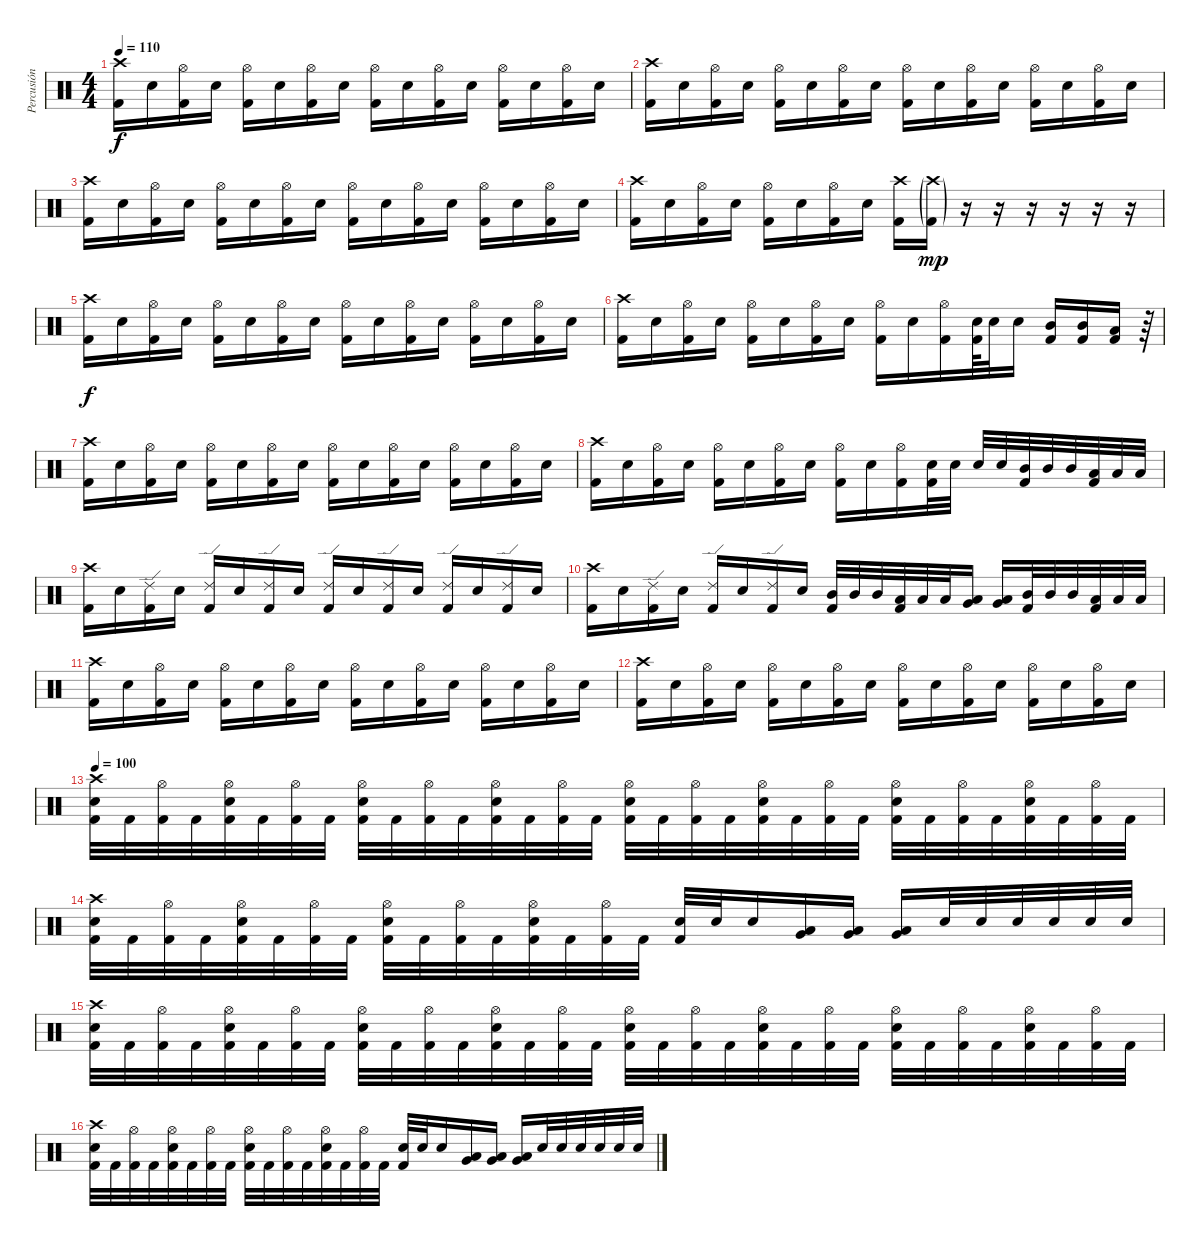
\track ("Percusión" "Percusión") {instrument percussion}
\staff {score}
\articulation defaults
\ts (4 4)
\tempo 110
\clef neutral
\ks c
("Crash high (hit)" "Kick (hit) 2").16{dy f} "Electric Snare (hit)".16 ("Hi-Hat (open)" "Kick (hit) 2").16 "Electric Snare (hit)".16 ("Hi-Hat (open)" "Kick (hit) 2").16 "Electric Snare (hit)".16 ("Hi-Hat (open)" "Kick (hit) 2").16 "Electric Snare (hit)".16 ("Hi-Hat (open)" "Kick (hit) 2").16 "Electric Snare (hit)".16 ("Hi-Hat (open)" "Kick (hit) 2").16 "Electric Snare (hit)".16 ("Hi-Hat (open)" "Kick (hit) 2").16 "Electric Snare (hit)".16 ("Hi-Hat (open)" "Kick (hit) 2").16 "Electric Snare (hit)".16 |
("Crash high (hit)" "Kick (hit) 2").16 "Electric Snare (hit)".16 ("Hi-Hat (open)" "Kick (hit) 2").16 "Electric Snare (hit)".16 ("Hi-Hat (open)" "Kick (hit) 2").16 "Electric Snare (hit)".16 ("Hi-Hat (open)" "Kick (hit) 2").16 "Electric Snare (hit)".16 ("Hi-Hat (open)" "Kick (hit) 2").16 "Electric Snare (hit)".16 ("Hi-Hat (open)" "Kick (hit) 2").16 "Electric Snare (hit)".16 ("Hi-Hat (open)" "Kick (hit) 2").16 "Electric Snare (hit)".16 ("Hi-Hat (open)" "Kick (hit) 2").16 "Electric Snare (hit)".16 |
("Crash high (hit)" "Kick (hit) 2").16 "Electric Snare (hit)".16 ("Hi-Hat (open)" "Kick (hit) 2").16 "Electric Snare (hit)".16 ("Hi-Hat (open)" "Kick (hit) 2").16 "Electric Snare (hit)".16 ("Hi-Hat (open)" "Kick (hit) 2").16 "Electric Snare (hit)".16 ("Hi-Hat (open)" "Kick (hit) 2").16 "Electric Snare (hit)".16 ("Hi-Hat (open)" "Kick (hit) 2").16 "Electric Snare (hit)".16 ("Hi-Hat (open)" "Kick (hit) 2").16 "Electric Snare (hit)".16 ("Hi-Hat (open)" "Kick (hit) 2").16 "Electric Snare (hit)".16 |
("Crash high (hit)" "Kick (hit) 2").16 "Electric Snare (hit)".16 ("Hi-Hat (open)" "Kick (hit) 2").16 "Electric Snare (hit)".16 ("Hi-Hat (open)" "Kick (hit) 2").16 "Electric Snare (hit)".16 ("Hi-Hat (open)" "Kick (hit) 2").16 "Electric Snare (hit)".16 ("Crash high (hit)" "Kick (hit) 2").16 ("Crash high (hit)"{g} "Kick (hit) 2"{g}).16{dy mp} r.16 r.16 r.16 r.16 r.16 r.16 |
("Crash high (hit)" "Kick (hit) 2").16{dy f} "Electric Snare (hit)".16 ("Hi-Hat (open)" "Kick (hit) 2").16 "Electric Snare (hit)".16 ("Hi-Hat (open)" "Kick (hit) 2").16 "Electric Snare (hit)".16 ("Hi-Hat (open)" "Kick (hit) 2").16 "Electric Snare (hit)".16 ("Hi-Hat (open)" "Kick (hit) 2").16 "Electric Snare (hit)".16 ("Hi-Hat (open)" "Kick (hit) 2").16 "Electric Snare (hit)".16 ("Hi-Hat (open)" "Kick (hit) 2").16 "Electric Snare (hit)".16 ("Hi-Hat (open)" "Kick (hit) 2").16 "Electric Snare (hit)".16 |
("Crash high (hit)" "Kick (hit) 2").16 "Electric Snare (hit)".16 ("Hi-Hat (open)" "Kick (hit) 2").16 "Electric Snare (hit)".16 ("Hi-Hat (open)" "Kick (hit) 2").16 "Electric Snare (hit)".16 ("Hi-Hat (open)" "Kick (hit) 2").16 "Electric Snare (hit)".16 ("Hi-Hat (open)" "Kick (hit) 2").16 "Electric Snare (hit)".16 ("Hi-Hat (open)" "Kick (hit) 2").16 ("Electric Snare (hit)" "Kick (hit) 2").64 "Electric Snare (hit)".32 "Electric Snare (hit)".16 ("Mid Tom (hit)" "Kick (hit) 2").16 ("Mid Tom (hit)" "Kick (hit) 2").16 ("Low Tom (hit)" "Kick (hit) 2").16 r.64 |
("Crash high (hit)" "Kick (hit) 2").16 "Electric Snare (hit)".16 ("Hi-Hat (open)" "Kick (hit) 2").16 "Electric Snare (hit)".16 ("Hi-Hat (open)" "Kick (hit) 2").16 "Electric Snare (hit)".16 ("Hi-Hat (open)" "Kick (hit) 2").16 "Electric Snare (hit)".16 ("Hi-Hat (open)" "Kick (hit) 2").16 "Electric Snare (hit)".16 ("Hi-Hat (open)" "Kick (hit) 2").16 "Electric Snare (hit)".16 ("Hi-Hat (open)" "Kick (hit) 2").16 "Electric Snare (hit)".16 ("Hi-Hat (open)" "Kick (hit) 2").16 "Electric Snare (hit)".16 |
("Crash high (hit)" "Kick (hit) 2").16 "Electric Snare (hit)".16 ("Hi-Hat (open)" "Kick (hit) 2").16 "Electric Snare (hit)".16 ("Hi-Hat (open)" "Kick (hit) 2").16 "Electric Snare (hit)".16 ("Hi-Hat (open)" "Kick (hit) 2").16 "Electric Snare (hit)".16 ("Hi-Hat (open)" "Kick (hit) 2").16 "Electric Snare (hit)".16 ("Hi-Hat (open)" "Kick (hit) 2").16 ("Electric Snare (hit)" "Kick (hit) 2").32 "Electric Snare (hit)".32 "Electric Snare (hit)".32 "Electric Snare (hit)".32 ("Mid Tom (hit)" "Kick (hit) 2").32 "Mid Tom (hit)".32 "Mid Tom (hit)".32 ("Low Tom (hit)" "Kick (hit) 2").32 "Low Tom (hit)".32 "Low Tom (hit)".32 |
("Crash high (hit)" "Kick (hit) 2").16 "Electric Snare (hit)".16 ("Ride (edge) 2" "Kick (hit) 2").16 "Electric Snare (hit)".16 ("Ride (edge) 2" "Kick (hit) 2").16 "Electric Snare (hit)".16 ("Ride (edge) 2" "Kick (hit) 2").16 "Electric Snare (hit)".16 ("Ride (edge) 2" "Kick (hit) 2").16 "Electric Snare (hit)".16 ("Ride (edge) 2" "Kick (hit) 2").16 "Electric Snare (hit)".16 ("Ride (edge) 2" "Kick (hit) 2").16 "Electric Snare (hit)".16 ("Ride (edge) 2" "Kick (hit) 2").16 "Electric Snare (hit)".16 |
("Crash high (hit)" "Kick (hit) 2").16 "Electric Snare (hit)".16 ("Ride (edge) 2" "Kick (hit) 2").16 "Electric Snare (hit)".16 ("Ride (edge) 2" "Kick (hit) 2").16 "Electric Snare (hit)".16 ("Ride (edge) 2" "Kick (hit) 2").16 "Electric Snare (hit)".16 ("Mid Tom (hit)" "Kick (hit) 2").32 "Mid Tom (hit)".32 "Mid Tom (hit)".32 ("Low Tom (hit)" "Kick (hit) 2").32 "Low Tom (hit)".32 "Low Tom (hit)".32 ("Very Low Tom (hit)" "Low Floor Tom (hit)").16 ("Very Low Tom (hit)" "Low Floor Tom (hit)").16 ("Mid Tom (hit)" "Kick (hit) 2").32 "Mid Tom (hit)".32 "Mid Tom (hit)".32 ("Low Tom (hit)" "Kick (hit) 2").32 "Low Tom (hit)".32 "Low Tom (hit)".32 |
("Crash high (hit)" "Kick (hit) 2").16 "Electric Snare (hit)".16 ("Hi-Hat (open)" "Kick (hit) 2").16 "Electric Snare (hit)".16 ("Hi-Hat (open)" "Kick (hit) 2").16 "Electric Snare (hit)".16 ("Hi-Hat (open)" "Kick (hit) 2").16 "Electric Snare (hit)".16 ("Hi-Hat (open)" "Kick (hit) 2").16 "Electric Snare (hit)".16 ("Hi-Hat (open)" "Kick (hit) 2").16 "Electric Snare (hit)".16 ("Hi-Hat (open)" "Kick (hit) 2").16 "Electric Snare (hit)".16 ("Hi-Hat (open)" "Kick (hit) 2").16 "Electric Snare (hit)".16 |
("Crash high (hit)" "Kick (hit) 2").16 "Electric Snare (hit)".16 ("Hi-Hat (open)" "Kick (hit) 2").16 "Electric Snare (hit)".16 ("Hi-Hat (open)" "Kick (hit) 2").16 "Electric Snare (hit)".16 ("Hi-Hat (open)" "Kick (hit) 2").16 "Electric Snare (hit)".16 ("Hi-Hat (open)" "Kick (hit) 2").16 "Electric Snare (hit)".16 ("Hi-Hat (open)" "Kick (hit) 2").16 "Electric Snare (hit)".16 ("Hi-Hat (open)" "Kick (hit) 2").16 "Electric Snare (hit)".16 ("Hi-Hat (open)" "Kick (hit) 2").16 "Electric Snare (hit)".16 |
\tempo 100
("Crash high (hit)" "Electric Snare (hit)" "Kick (hit) 2").32 "Kick (hit) 2".32 ("Hi-Hat (open)" "Kick (hit) 2").32 "Kick (hit) 2".32 ("Hi-Hat (open)" "Electric Snare (hit)" "Kick (hit) 2").32 "Kick (hit) 2".32 ("Hi-Hat (open)" "Kick (hit) 2").32 "Kick (hit) 2".32 ("Hi-Hat (open)" "Electric Snare (hit)" "Kick (hit) 2").32 "Kick (hit) 2".32 ("Hi-Hat (open)" "Kick (hit) 2").32 "Kick (hit) 2".32 ("Hi-Hat (open)" "Electric Snare (hit)" "Kick (hit) 2").32 "Kick (hit) 2".32 ("Hi-Hat (open)" "Kick (hit) 2").32 "Kick (hit) 2".32 ("Hi-Hat (open)" "Electric Snare (hit)" "Kick (hit) 2").32 "Kick (hit) 2".32 ("Hi-Hat (open)" "Kick (hit) 2").32 "Kick (hit) 2".32 ("Hi-Hat (open)" "Electric Snare (hit)" "Kick (hit) 2").32 "Kick (hit) 2".32 ("Hi-Hat (open)" "Kick (hit) 2").32 "Kick (hit) 2".32 ("Hi-Hat (open)" "Electric Snare (hit)" "Kick (hit) 2").32 "Kick (hit) 2".32 ("Hi-Hat (open)" "Kick (hit) 2").32 "Kick (hit) 2".32 ("Hi-Hat (open)" "Electric Snare (hit)" "Kick (hit) 2").32 "Kick (hit) 2".32 ("Hi-Hat (open)" "Kick (hit) 2").32 "Kick (hit) 2".32 |
("Crash high (hit)" "Electric Snare (hit)" "Kick (hit) 2").32 "Kick (hit) 2".32 ("Hi-Hat (open)" "Kick (hit) 2").32 "Kick (hit) 2".32 ("Hi-Hat (open)" "Electric Snare (hit)" "Kick (hit) 2").32 "Kick (hit) 2".32 ("Hi-Hat (open)" "Kick (hit) 2").32 "Kick (hit) 2".32 ("Hi-Hat (open)" "Electric Snare (hit)" "Kick (hit) 2").32 "Kick (hit) 2".32 ("Hi-Hat (open)" "Kick (hit) 2").32 "Kick (hit) 2".32 ("Hi-Hat (open)" "Electric Snare (hit)" "Kick (hit) 2").32 "Kick (hit) 2".32 ("Hi-Hat (open)" "Kick (hit) 2").32 "Kick (hit) 2".32 ("Electric Snare (hit)" "Kick (hit) 2").32 "Electric Snare (hit)".32 "Electric Snare (hit)".16 ("Very Low Tom (hit)" "Low Floor Tom (hit)").16 ("Very Low Tom (hit)" "Low Floor Tom (hit)").16 ("Very Low Tom (hit)" "Low Floor Tom (hit)").16 "Electric Snare (hit)".32 "Electric Snare (hit)".32 "Electric Snare (hit)".32 "Electric Snare (hit)".32 "Electric Snare (hit)".32 "Electric Snare (hit)".32 |
("Crash high (hit)" "Electric Snare (hit)" "Kick (hit) 2").32 "Kick (hit) 2".32 ("Hi-Hat (open)" "Kick (hit) 2").32 "Kick (hit) 2".32 ("Hi-Hat (open)" "Electric Snare (hit)" "Kick (hit) 2").32 "Kick (hit) 2".32 ("Hi-Hat (open)" "Kick (hit) 2").32 "Kick (hit) 2".32 ("Hi-Hat (open)" "Electric Snare (hit)" "Kick (hit) 2").32 "Kick (hit) 2".32 ("Hi-Hat (open)" "Kick (hit) 2").32 "Kick (hit) 2".32 ("Hi-Hat (open)" "Electric Snare (hit)" "Kick (hit) 2").32 "Kick (hit) 2".32 ("Hi-Hat (open)" "Kick (hit) 2").32 "Kick (hit) 2".32 ("Hi-Hat (open)" "Electric Snare (hit)" "Kick (hit) 2").32 "Kick (hit) 2".32 ("Hi-Hat (open)" "Kick (hit) 2").32 "Kick (hit) 2".32 ("Hi-Hat (open)" "Electric Snare (hit)" "Kick (hit) 2").32 "Kick (hit) 2".32 ("Hi-Hat (open)" "Kick (hit) 2").32 "Kick (hit) 2".32 ("Hi-Hat (open)" "Electric Snare (hit)" "Kick (hit) 2").32 "Kick (hit) 2".32 ("Hi-Hat (open)" "Kick (hit) 2").32 "Kick (hit) 2".32 ("Hi-Hat (open)" "Electric Snare (hit)" "Kick (hit) 2").32 "Kick (hit) 2".32 ("Hi-Hat (open)" "Kick (hit) 2").32 "Kick (hit) 2".32 |
("Crash high (hit)" "Electric Snare (hit)" "Kick (hit) 2").32 "Kick (hit) 2".32 ("Hi-Hat (open)" "Kick (hit) 2").32 "Kick (hit) 2".32 ("Hi-Hat (open)" "Electric Snare (hit)" "Kick (hit) 2").32 "Kick (hit) 2".32 ("Hi-Hat (open)" "Kick (hit) 2").32 "Kick (hit) 2".32 ("Hi-Hat (open)" "Electric Snare (hit)" "Kick (hit) 2").32 "Kick (hit) 2".32 ("Hi-Hat (open)" "Kick (hit) 2").32 "Kick (hit) 2".32 ("Hi-Hat (open)" "Electric Snare (hit)" "Kick (hit) 2").32 "Kick (hit) 2".32 ("Hi-Hat (open)" "Kick (hit) 2").32 "Kick (hit) 2".32 ("Electric Snare (hit)" "Kick (hit) 2").32 "Electric Snare (hit)".32 "Electric Snare (hit)".16 ("Very Low Tom (hit)" "Low Floor Tom (hit)").16 ("Very Low Tom (hit)" "Low Floor Tom (hit)").16 ("Very Low Tom (hit)" "Low Floor Tom (hit)").16 "Electric Snare (hit)".32 "Electric Snare (hit)".32 "Electric Snare (hit)".32 "Electric Snare (hit)".32 "Electric Snare (hit)".32 "Electric Snare (hit)".32
